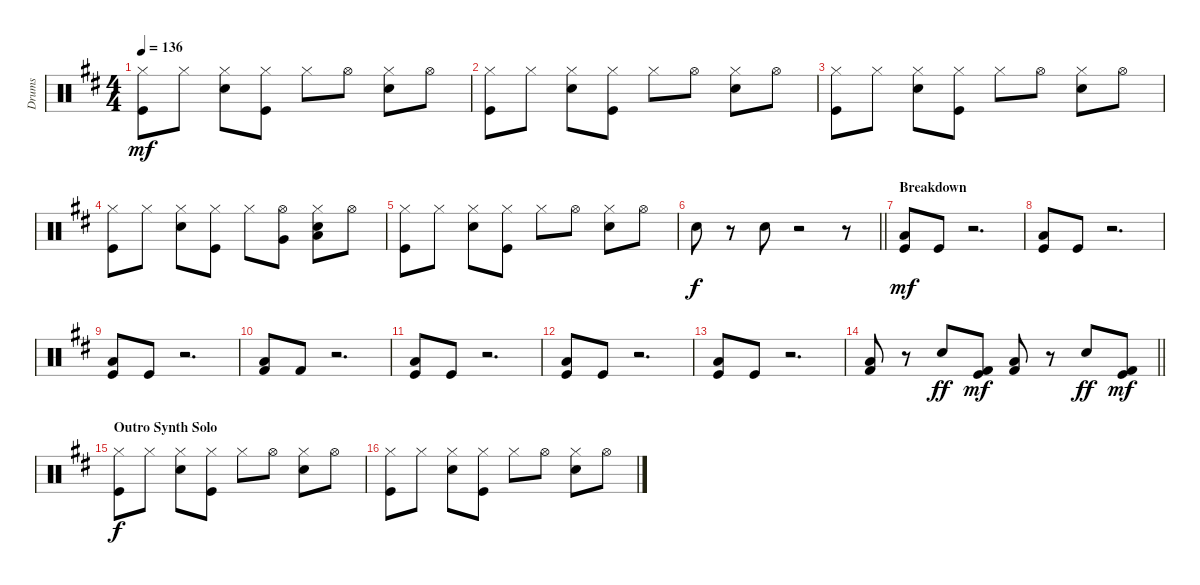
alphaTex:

\track ("Drums" "Drums") {instrument percussion}
\staff {score}
\articulation defaults
\ts (4 4)
\tempo 136
\clef neutral
\ks bminor
("Kick (hit)" "Hi-Hat (closed)").8{dy mf} "Hi-Hat (closed)".8 ("Snare (hit) 2" "Hi-Hat (closed)").8 ("Kick (hit)" "Hi-Hat (closed)").8 "Hi-Hat (closed)".8 "Hi-Hat (open)".8 ("Snare (hit) 2" "Hi-Hat (closed)").8 "Hi-Hat (open)".8 |
("Kick (hit)" "Hi-Hat (closed)").8 "Hi-Hat (closed)".8 ("Snare (hit) 2" "Hi-Hat (closed)").8 ("Kick (hit)" "Hi-Hat (closed)").8 "Hi-Hat (closed)".8 "Hi-Hat (open)".8 ("Snare (hit) 2" "Hi-Hat (closed)").8 "Hi-Hat (open)".8 |
("Kick (hit)" "Hi-Hat (closed)").8 "Hi-Hat (closed)".8 ("Snare (hit) 2" "Hi-Hat (closed)").8 ("Kick (hit)" "Hi-Hat (closed)").8 "Hi-Hat (closed)".8 "Hi-Hat (open)".8 ("Snare (hit) 2" "Hi-Hat (closed)").8 "Hi-Hat (open)".8 |
("Kick (hit)" "Hi-Hat (closed)").8 "Hi-Hat (closed)".8 ("Snare (hit) 2" "Hi-Hat (closed)").8 ("Kick (hit)" "Hi-Hat (closed)").8 "Hi-Hat (closed)".8 ("Very Low Tom (hit)" "Hi-Hat (open)").8 ("Low Floor Tom (hit)" "Snare (hit) 2" "Hi-Hat (closed)").8 "Hi-Hat (open)".8 |
("Kick (hit)" "Hi-Hat (closed)").8 "Hi-Hat (closed)".8 ("Snare (hit) 2" "Hi-Hat (closed)").8 ("Kick (hit)" "Hi-Hat (closed)").8 "Hi-Hat (closed)".8 "Hi-Hat (open)".8 ("Snare (hit) 2" "Hi-Hat (closed)").8 "Hi-Hat (open)".8 |
\barLineRight lightlight "Snare (hit) 2".8{dy f}
r.8 "Snare (hit) 2".8 r.2 r.8 |
\section ("" "Breakdown")
("Low Floor Tom (hit)" "Kick (hit)").8{dy mf} "Kick (hit)".8 r.2{d} |
("Low Floor Tom (hit)" "Kick (hit)").8 "Kick (hit)".8 r.2{d} |
("Low Floor Tom (hit)" "Kick (hit)").8 "Kick (hit)".8 r.2{d} |
("Low Floor Tom (hit)" "Kick (hit) 2").8 "Kick (hit) 2".8 r.2{d} |
("Low Floor Tom (hit)" "Kick (hit)").8 "Kick (hit)".8 r.2{d} |
("Low Floor Tom (hit)" "Kick (hit)").8 "Kick (hit)".8 r.2{d} |
("Low Floor Tom (hit)" "Kick (hit)").8 "Kick (hit)".8 r.2{d} |
\barLineRight lightlight
("Low Floor Tom (hit)" "Kick (hit) 2").8 r.8 "Snare (hit) 2".8{dy ff} ("Kick (hit)" "Kick (hit) 2").8{dy mf} ("Low Floor Tom (hit)" "Kick (hit) 2").8 r.8 "Snare (hit) 2".8{dy ff} ("Kick (hit)" "Kick (hit) 2").8{dy mf} |
\section ("" "Outro Synth Solo")
("Kick (hit)" "Hi-Hat (closed)").8{dy f} "Hi-Hat (closed)".8 ("Snare (hit) 2" "Hi-Hat (closed)").8 ("Kick (hit)" "Hi-Hat (closed)").8 "Hi-Hat (closed)".8 "Hi-Hat (open)".8 ("Snare (hit) 2" "Hi-Hat (closed)").8 "Hi-Hat (open)".8 |
("Kick (hit)" "Hi-Hat (closed)").8 "Hi-Hat (closed)".8 ("Snare (hit) 2" "Hi-Hat (closed)").8 ("Kick (hit)" "Hi-Hat (closed)").8 "Hi-Hat (closed)".8 "Hi-Hat (open)".8 ("Snare (hit) 2" "Hi-Hat (closed)").8 "Hi-Hat (open)".8
